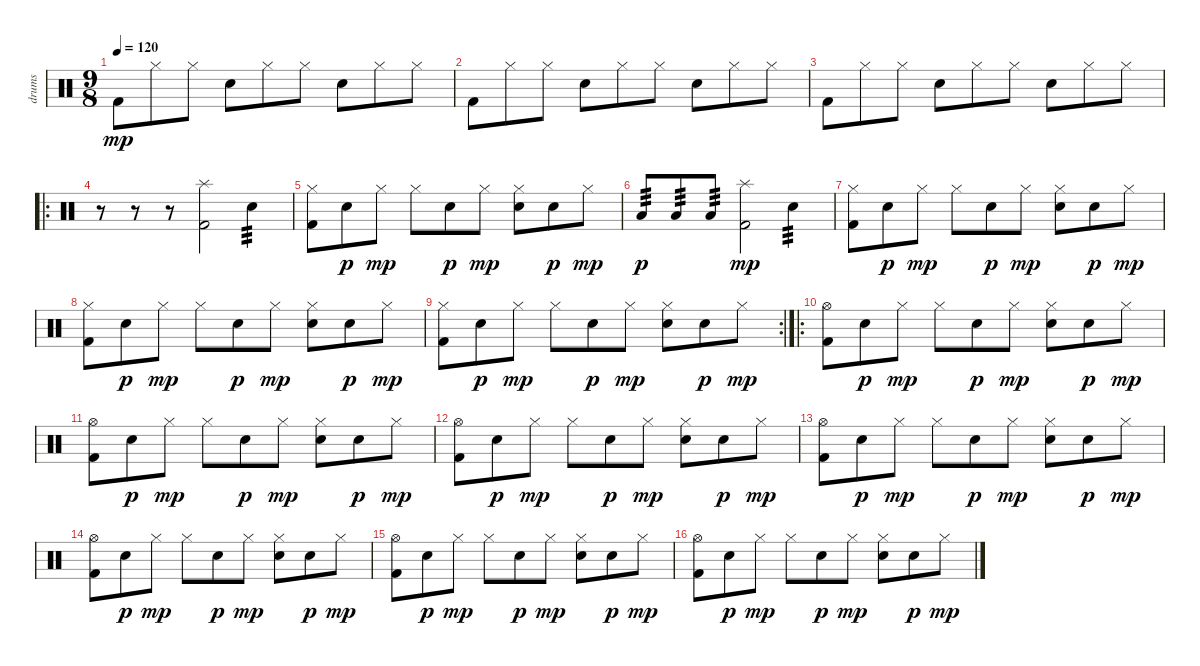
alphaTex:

\track ("drums" "drums") {instrument percussion}
\staff {score}
\articulation defaults
\ts (9 8)
\tempo 120
\clef neutral
\ks c "Kick (hit) 2".8{dy mp} "Hi-Hat (closed)".8 "Hi-Hat (closed)".8 "Snare (hit) 2".8 "Hi-Hat (closed)".8 "Hi-Hat (closed)".8 "Snare (hit) 2".8 "Hi-Hat (closed)".8 "Hi-Hat (closed)".8
|
"Kick (hit) 2".8 "Hi-Hat (closed)".8 "Hi-Hat (closed)".8 "Snare (hit) 2".8 "Hi-Hat (closed)".8 "Hi-Hat (closed)".8 "Snare (hit) 2".8 "Hi-Hat (closed)".8 "Hi-Hat (closed)".8 |
"Kick (hit) 2".8 "Hi-Hat (closed)".8 "Hi-Hat (closed)".8 "Snare (hit) 2".8 "Hi-Hat (closed)".8 "Hi-Hat (closed)".8 "Snare (hit) 2".8 "Hi-Hat (closed)".8 "Hi-Hat (closed)".8 |
\ro
r.8 r.8 r.8 ("Splash (hit)" "Kick (hit) 2").2 "Snare (hit) 2".4{tp 3} |
("Hi-Hat (closed)" "Kick (hit) 2").8 "Snare (hit) 2".8{dy p} "Hi-Hat (closed)".8{dy mp} "Hi-Hat (closed)".8 "Snare (hit) 2".8{dy p} "Hi-Hat (closed)".8{dy mp} ("Hi-Hat (closed)" "Snare (hit) 2").8 "Snare (hit) 2".8{dy p} "Hi-Hat (closed)".8{dy mp} |
"Low Tom (hit)".8{tp 3 dy p} "Low Tom (hit)".8{tp 3} "Low Tom (hit)".8{tp 3} ("Splash (hit)" "Kick (hit) 2").2{dy mp} "Snare (hit) 2".4{tp 3} |
("Hi-Hat (closed)" "Kick (hit) 2").8 "Snare (hit) 2".8{dy p} "Hi-Hat (closed)".8{dy mp} "Hi-Hat (closed)".8 "Snare (hit) 2".8{dy p} "Hi-Hat (closed)".8{dy mp} ("Hi-Hat (closed)" "Snare (hit) 2").8 "Snare (hit) 2".8{dy p} "Hi-Hat (closed)".8{dy mp} |
("Hi-Hat (closed)" "Kick (hit) 2").8 "Snare (hit) 2".8{dy p} "Hi-Hat (closed)".8{dy mp} "Hi-Hat (closed)".8 "Snare (hit) 2".8{dy p} "Hi-Hat (closed)".8{dy mp} ("Hi-Hat (closed)" "Snare (hit) 2").8 "Snare (hit) 2".8{dy p} "Hi-Hat (closed)".8{dy mp} |
\rc 2
("Hi-Hat (closed)" "Kick (hit) 2").8 "Snare (hit) 2".8{dy p} "Hi-Hat (closed)".8{dy mp} "Hi-Hat (closed)".8 "Snare (hit) 2".8{dy p} "Hi-Hat (closed)".8{dy mp} ("Hi-Hat (closed)" "Snare (hit) 2").8 "Snare (hit) 2".8{dy p} "Hi-Hat (closed)".8{dy mp} |
\ro
("Hi-Hat (open)" "Kick (hit) 2").8 "Snare (hit) 2".8{dy p} "Hi-Hat (closed)".8{dy mp} "Hi-Hat (closed)".8 "Snare (hit) 2".8{dy p} "Hi-Hat (closed)".8{dy mp} ("Hi-Hat (closed)" "Snare (hit) 2").8 "Snare (hit) 2".8{dy p} "Hi-Hat (closed)".8{dy mp} |
("Hi-Hat (open)" "Kick (hit) 2").8 "Snare (hit) 2".8{dy p} "Hi-Hat (closed)".8{dy mp} "Hi-Hat (closed)".8 "Snare (hit) 2".8{dy p} "Hi-Hat (closed)".8{dy mp} ("Hi-Hat (closed)" "Snare (hit) 2").8 "Snare (hit) 2".8{dy p} "Hi-Hat (closed)".8{dy mp} |
("Hi-Hat (open)" "Kick (hit) 2").8 "Snare (hit) 2".8{dy p} "Hi-Hat (closed)".8{dy mp} "Hi-Hat (closed)".8 "Snare (hit) 2".8{dy p} "Hi-Hat (closed)".8{dy mp} ("Hi-Hat (closed)" "Snare (hit) 2").8 "Snare (hit) 2".8{dy p} "Hi-Hat (closed)".8{dy mp} |
("Hi-Hat (open)" "Kick (hit) 2").8 "Snare (hit) 2".8{dy p} "Hi-Hat (closed)".8{dy mp} "Hi-Hat (closed)".8 "Snare (hit) 2".8{dy p} "Hi-Hat (closed)".8{dy mp} ("Hi-Hat (closed)" "Snare (hit) 2").8 "Snare (hit) 2".8{dy p} "Hi-Hat (closed)".8{dy mp} |
("Hi-Hat (open)" "Kick (hit) 2").8 "Snare (hit) 2".8{dy p} "Hi-Hat (closed)".8{dy mp} "Hi-Hat (closed)".8 "Snare (hit) 2".8{dy p} "Hi-Hat (closed)".8{dy mp} ("Hi-Hat (closed)" "Snare (hit) 2").8 "Snare (hit) 2".8{dy p} "Hi-Hat (closed)".8{dy mp} |
("Hi-Hat (open)" "Kick (hit) 2").8 "Snare (hit) 2".8{dy p} "Hi-Hat (closed)".8{dy mp} "Hi-Hat (closed)".8 "Snare (hit) 2".8{dy p} "Hi-Hat (closed)".8{dy mp} ("Hi-Hat (closed)" "Snare (hit) 2").8 "Snare (hit) 2".8{dy p} "Hi-Hat (closed)".8{dy mp} |
("Hi-Hat (open)" "Kick (hit) 2").8 "Snare (hit) 2".8{dy p} "Hi-Hat (closed)".8{dy mp} "Hi-Hat (closed)".8 "Snare (hit) 2".8{dy p} "Hi-Hat (closed)".8{dy mp} ("Hi-Hat (closed)" "Snare (hit) 2").8 "Snare (hit) 2".8{dy p} "Hi-Hat (closed)".8{dy mp}
